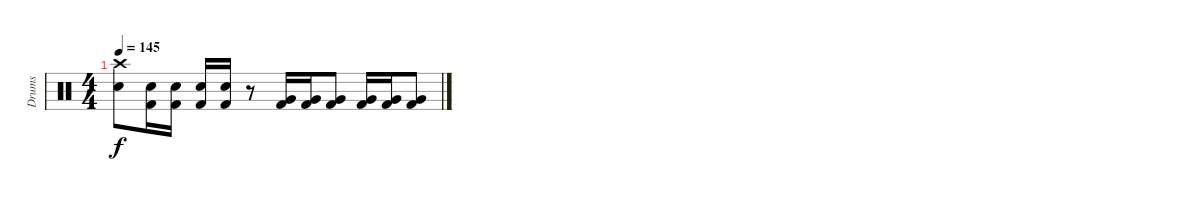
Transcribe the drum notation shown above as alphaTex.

\track ("Drums" "Drums") {instrument percussion}
\staff {score}
\articulation defaults
\ts (4 4)
\tempo 145
\clef neutral
\ks c
("Crash high (hit)" "Electric Snare (hit)").8{dy f} ("Electric Snare (hit)" "Kick (hit) 2").16 ("Electric Snare (hit)" "Kick (hit) 2").16 ("Electric Snare (hit)" "Kick (hit) 2").16 ("Electric Snare (hit)" "Kick (hit) 2").16 r.8 ("Very Low Tom (hit)" "Kick (hit) 2").16 ("Very Low Tom (hit)" "Kick (hit) 2").16 ("Very Low Tom (hit)" "Kick (hit) 2").8 ("Very Low Tom (hit)" "Kick (hit) 2").16 ("Very Low Tom (hit)" "Kick (hit) 2").16 ("Very Low Tom (hit)" "Kick (hit) 2").8
